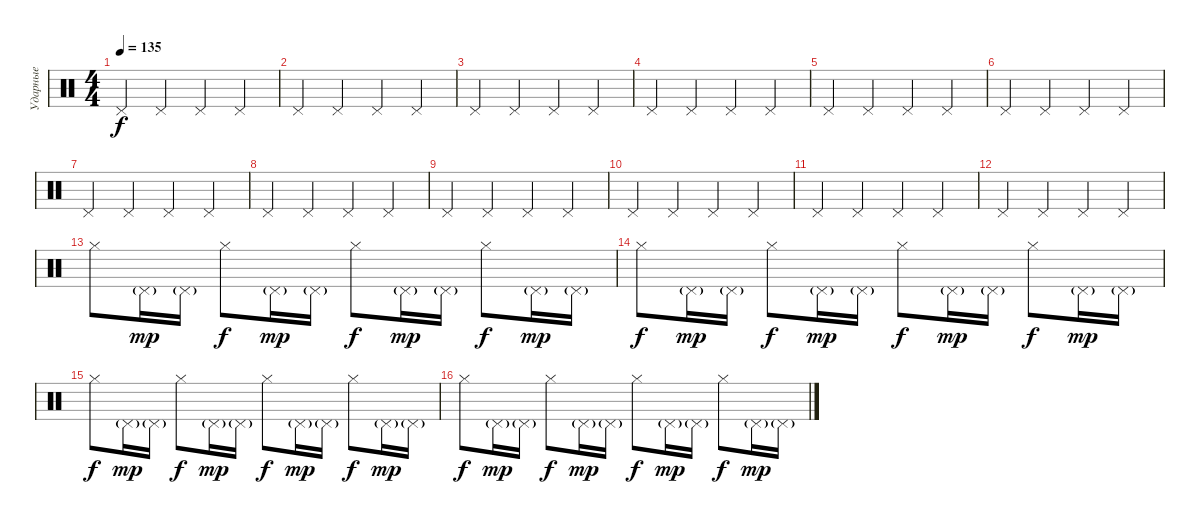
\track ("Ударные" "Ударные") {instrument percussion}
\staff {score}
\articulation defaults
\ts (4 4)
\tempo 135
\clef neutral
\ks c "Pedal Hi-Hat (hit)".4{dy f} "Pedal Hi-Hat (hit)".4 "Pedal Hi-Hat (hit)".4 "Pedal Hi-Hat (hit)".4
|
"Pedal Hi-Hat (hit)".4 "Pedal Hi-Hat (hit)".4 "Pedal Hi-Hat (hit)".4 "Pedal Hi-Hat (hit)".4 |
"Pedal Hi-Hat (hit)".4 "Pedal Hi-Hat (hit)".4 "Pedal Hi-Hat (hit)".4 "Pedal Hi-Hat (hit)".4 |
"Pedal Hi-Hat (hit)".4 "Pedal Hi-Hat (hit)".4 "Pedal Hi-Hat (hit)".4 "Pedal Hi-Hat (hit)".4 |
"Pedal Hi-Hat (hit)".4 "Pedal Hi-Hat (hit)".4 "Pedal Hi-Hat (hit)".4 "Pedal Hi-Hat (hit)".4 |
"Pedal Hi-Hat (hit)".4 "Pedal Hi-Hat (hit)".4 "Pedal Hi-Hat (hit)".4 "Pedal Hi-Hat (hit)".4 |
"Pedal Hi-Hat (hit)".4 "Pedal Hi-Hat (hit)".4 "Pedal Hi-Hat (hit)".4 "Pedal Hi-Hat (hit)".4 |
"Pedal Hi-Hat (hit)".4 "Pedal Hi-Hat (hit)".4 "Pedal Hi-Hat (hit)".4 "Pedal Hi-Hat (hit)".4 |
"Pedal Hi-Hat (hit)".4 "Pedal Hi-Hat (hit)".4 "Pedal Hi-Hat (hit)".4 "Pedal Hi-Hat (hit)".4 |
"Pedal Hi-Hat (hit)".4 "Pedal Hi-Hat (hit)".4 "Pedal Hi-Hat (hit)".4 "Pedal Hi-Hat (hit)".4 |
"Pedal Hi-Hat (hit)".4 "Pedal Hi-Hat (hit)".4 "Pedal Hi-Hat (hit)".4 "Pedal Hi-Hat (hit)".4 |
"Pedal Hi-Hat (hit)".4 "Pedal Hi-Hat (hit)".4 "Pedal Hi-Hat (hit)".4 "Pedal Hi-Hat (hit)".4 |
"Hi-Hat (closed)".8{volume 13} "Pedal Hi-Hat (hit)"{g}.16{dy mp} "Pedal Hi-Hat (hit)"{g}.16 "Hi-Hat (closed)".8{dy f} "Pedal Hi-Hat (hit)"{g}.16{dy mp} "Pedal Hi-Hat (hit)"{g}.16 "Hi-Hat (closed)".8{dy f} "Pedal Hi-Hat (hit)"{g}.16{dy mp} "Pedal Hi-Hat (hit)"{g}.16 "Hi-Hat (closed)".8{dy f} "Pedal Hi-Hat (hit)"{g}.16{dy mp} "Pedal Hi-Hat (hit)"{g}.16 |
"Hi-Hat (closed)".8{dy f} "Pedal Hi-Hat (hit)"{g}.16{dy mp} "Pedal Hi-Hat (hit)"{g}.16 "Hi-Hat (closed)".8{dy f} "Pedal Hi-Hat (hit)"{g}.16{dy mp} "Pedal Hi-Hat (hit)"{g}.16 "Hi-Hat (closed)".8{dy f} "Pedal Hi-Hat (hit)"{g}.16{dy mp} "Pedal Hi-Hat (hit)"{g}.16 "Hi-Hat (closed)".8{dy f} "Pedal Hi-Hat (hit)"{g}.16{dy mp} "Pedal Hi-Hat (hit)"{g}.16 |
"Hi-Hat (closed)".8{dy f} "Pedal Hi-Hat (hit)"{g}.16{dy mp} "Pedal Hi-Hat (hit)"{g}.16 "Hi-Hat (closed)".8{dy f} "Pedal Hi-Hat (hit)"{g}.16{dy mp} "Pedal Hi-Hat (hit)"{g}.16 "Hi-Hat (closed)".8{dy f} "Pedal Hi-Hat (hit)"{g}.16{dy mp} "Pedal Hi-Hat (hit)"{g}.16 "Hi-Hat (closed)".8{dy f} "Pedal Hi-Hat (hit)"{g}.16{dy mp} "Pedal Hi-Hat (hit)"{g}.16 |
"Hi-Hat (closed)".8{dy f} "Pedal Hi-Hat (hit)"{g}.16{dy mp} "Pedal Hi-Hat (hit)"{g}.16 "Hi-Hat (closed)".8{dy f} "Pedal Hi-Hat (hit)"{g}.16{dy mp} "Pedal Hi-Hat (hit)"{g}.16 "Hi-Hat (closed)".8{dy f} "Pedal Hi-Hat (hit)"{g}.16{dy mp} "Pedal Hi-Hat (hit)"{g}.16 "Hi-Hat (closed)".8{dy f} "Pedal Hi-Hat (hit)"{g}.16{dy mp} "Pedal Hi-Hat (hit)"{g}.16
